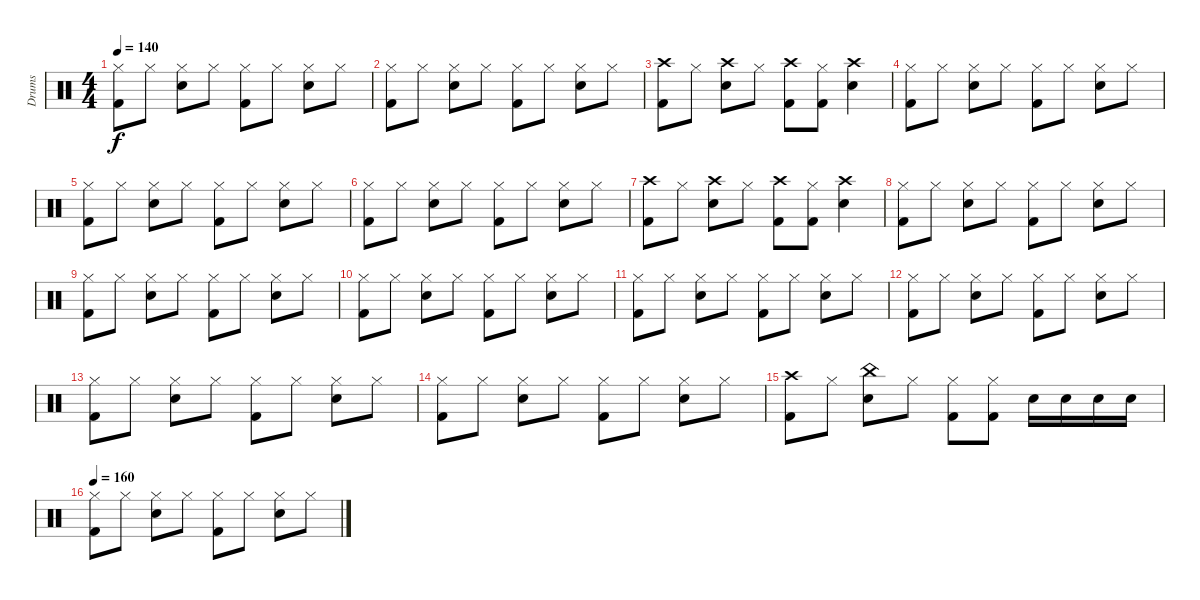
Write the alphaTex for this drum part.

\track ("Drums" "Drums") {instrument percussion}
\staff {score}
\articulation defaults
\ts (4 4)
\tempo 140
\clef neutral
\ks c
("Hi-Hat (closed)" "Kick (hit) 2").8{dy f} "Hi-Hat (closed)".8 ("Hi-Hat (closed)" "Electric Snare (hit)").8 "Hi-Hat (closed)".8 ("Hi-Hat (closed)" "Kick (hit) 2").8 "Hi-Hat (closed)".8 ("Hi-Hat (closed)" "Electric Snare (hit)").8 "Hi-Hat (closed)".8 |
("Hi-Hat (closed)" "Kick (hit) 2").8 "Hi-Hat (closed)".8 ("Hi-Hat (closed)" "Electric Snare (hit)").8 "Hi-Hat (closed)".8 ("Hi-Hat (closed)" "Kick (hit) 2").8 "Hi-Hat (closed)".8 ("Hi-Hat (closed)" "Electric Snare (hit)").8 "Hi-Hat (closed)".8 |
("Crash high (hit)" "Kick (hit) 2").8 "Hi-Hat (closed)".8 ("Crash high (hit)" "Electric Snare (hit)").8 "Hi-Hat (closed)".8 ("Crash high (hit)" "Kick (hit) 2").8 ("Hi-Hat (closed)" "Kick (hit) 2").8 ("Crash high (hit)" "Electric Snare (hit)").4 |
("Hi-Hat (closed)" "Kick (hit) 2").8 "Hi-Hat (closed)".8 ("Hi-Hat (closed)" "Electric Snare (hit)").8 "Hi-Hat (closed)".8 ("Hi-Hat (closed)" "Kick (hit) 2").8 "Hi-Hat (closed)".8 ("Hi-Hat (closed)" "Electric Snare (hit)").8 "Hi-Hat (closed)".8 |
("Hi-Hat (closed)" "Kick (hit) 2").8 "Hi-Hat (closed)".8 ("Hi-Hat (closed)" "Electric Snare (hit)").8 "Hi-Hat (closed)".8 ("Hi-Hat (closed)" "Kick (hit) 2").8 "Hi-Hat (closed)".8 ("Hi-Hat (closed)" "Electric Snare (hit)").8 "Hi-Hat (closed)".8 |
("Hi-Hat (closed)" "Kick (hit) 2").8 "Hi-Hat (closed)".8 ("Hi-Hat (closed)" "Electric Snare (hit)").8 "Hi-Hat (closed)".8 ("Hi-Hat (closed)" "Kick (hit) 2").8 "Hi-Hat (closed)".8 ("Hi-Hat (closed)" "Electric Snare (hit)").8 "Hi-Hat (closed)".8 |
("Crash high (hit)" "Kick (hit) 2").8 "Hi-Hat (closed)".8 ("Crash high (hit)" "Electric Snare (hit)").8 "Hi-Hat (closed)".8 ("Crash high (hit)" "Kick (hit) 2").8 ("Hi-Hat (closed)" "Kick (hit) 2").8 ("Crash high (hit)" "Electric Snare (hit)").4 |
("Hi-Hat (closed)" "Kick (hit) 2").8 "Hi-Hat (closed)".8 ("Hi-Hat (closed)" "Electric Snare (hit)").8 "Hi-Hat (closed)".8 ("Hi-Hat (closed)" "Kick (hit) 2").8 "Hi-Hat (closed)".8 ("Hi-Hat (closed)" "Electric Snare (hit)").8 "Hi-Hat (closed)".8 |
("Hi-Hat (closed)" "Kick (hit) 2").8 "Hi-Hat (closed)".8 ("Hi-Hat (closed)" "Electric Snare (hit)").8 "Hi-Hat (closed)".8 ("Hi-Hat (closed)" "Kick (hit) 2").8 "Hi-Hat (closed)".8 ("Hi-Hat (closed)" "Electric Snare (hit)").8 "Hi-Hat (closed)".8 |
("Hi-Hat (closed)" "Kick (hit) 2").8 "Hi-Hat (closed)".8 ("Hi-Hat (closed)" "Electric Snare (hit)").8 "Hi-Hat (closed)".8 ("Hi-Hat (closed)" "Kick (hit) 2").8 "Hi-Hat (closed)".8 ("Hi-Hat (closed)" "Electric Snare (hit)").8 "Hi-Hat (closed)".8 |
("Hi-Hat (closed)" "Kick (hit) 2").8 "Hi-Hat (closed)".8 ("Hi-Hat (closed)" "Electric Snare (hit)").8 "Hi-Hat (closed)".8 ("Hi-Hat (closed)" "Kick (hit) 2").8 "Hi-Hat (closed)".8 ("Hi-Hat (closed)" "Electric Snare (hit)").8 "Hi-Hat (closed)".8 |
("Hi-Hat (closed)" "Kick (hit) 2").8 "Hi-Hat (closed)".8 ("Hi-Hat (closed)" "Electric Snare (hit)").8 "Hi-Hat (closed)".8 ("Hi-Hat (closed)" "Kick (hit) 2").8 "Hi-Hat (closed)".8 ("Hi-Hat (closed)" "Electric Snare (hit)").8 "Hi-Hat (closed)".8 |
("Hi-Hat (closed)" "Kick (hit) 2").8 "Hi-Hat (closed)".8 ("Hi-Hat (closed)" "Electric Snare (hit)").8 "Hi-Hat (closed)".8 ("Hi-Hat (closed)" "Kick (hit) 2").8 "Hi-Hat (closed)".8 ("Hi-Hat (closed)" "Electric Snare (hit)").8 "Hi-Hat (closed)".8 |
("Hi-Hat (closed)" "Kick (hit) 2").8 "Hi-Hat (closed)".8 ("Hi-Hat (closed)" "Electric Snare (hit)").8 "Hi-Hat (closed)".8 ("Hi-Hat (closed)" "Kick (hit) 2").8 "Hi-Hat (closed)".8 ("Hi-Hat (closed)" "Electric Snare (hit)").8 "Hi-Hat (closed)".8 |
("Crash high (hit)" "Kick (hit) 2").8 "Hi-Hat (closed)".8 ("China (hit)" "Electric Snare (hit)").8 "Hi-Hat (closed)".8 ("Hi-Hat (closed)" "Kick (hit) 2").8 ("Hi-Hat (closed)" "Kick (hit) 2").8 "Electric Snare (hit)".16 "Electric Snare (hit)".16 "Electric Snare (hit)".16 "Electric Snare (hit)".16 |
\tempo 160
("Hi-Hat (closed)" "Kick (hit) 2").8 "Hi-Hat (closed)".8 ("Hi-Hat (closed)" "Electric Snare (hit)").8 "Hi-Hat (closed)".8 ("Hi-Hat (closed)" "Kick (hit) 2").8 "Hi-Hat (closed)".8 ("Hi-Hat (closed)" "Electric Snare (hit)").8 "Hi-Hat (closed)".8
